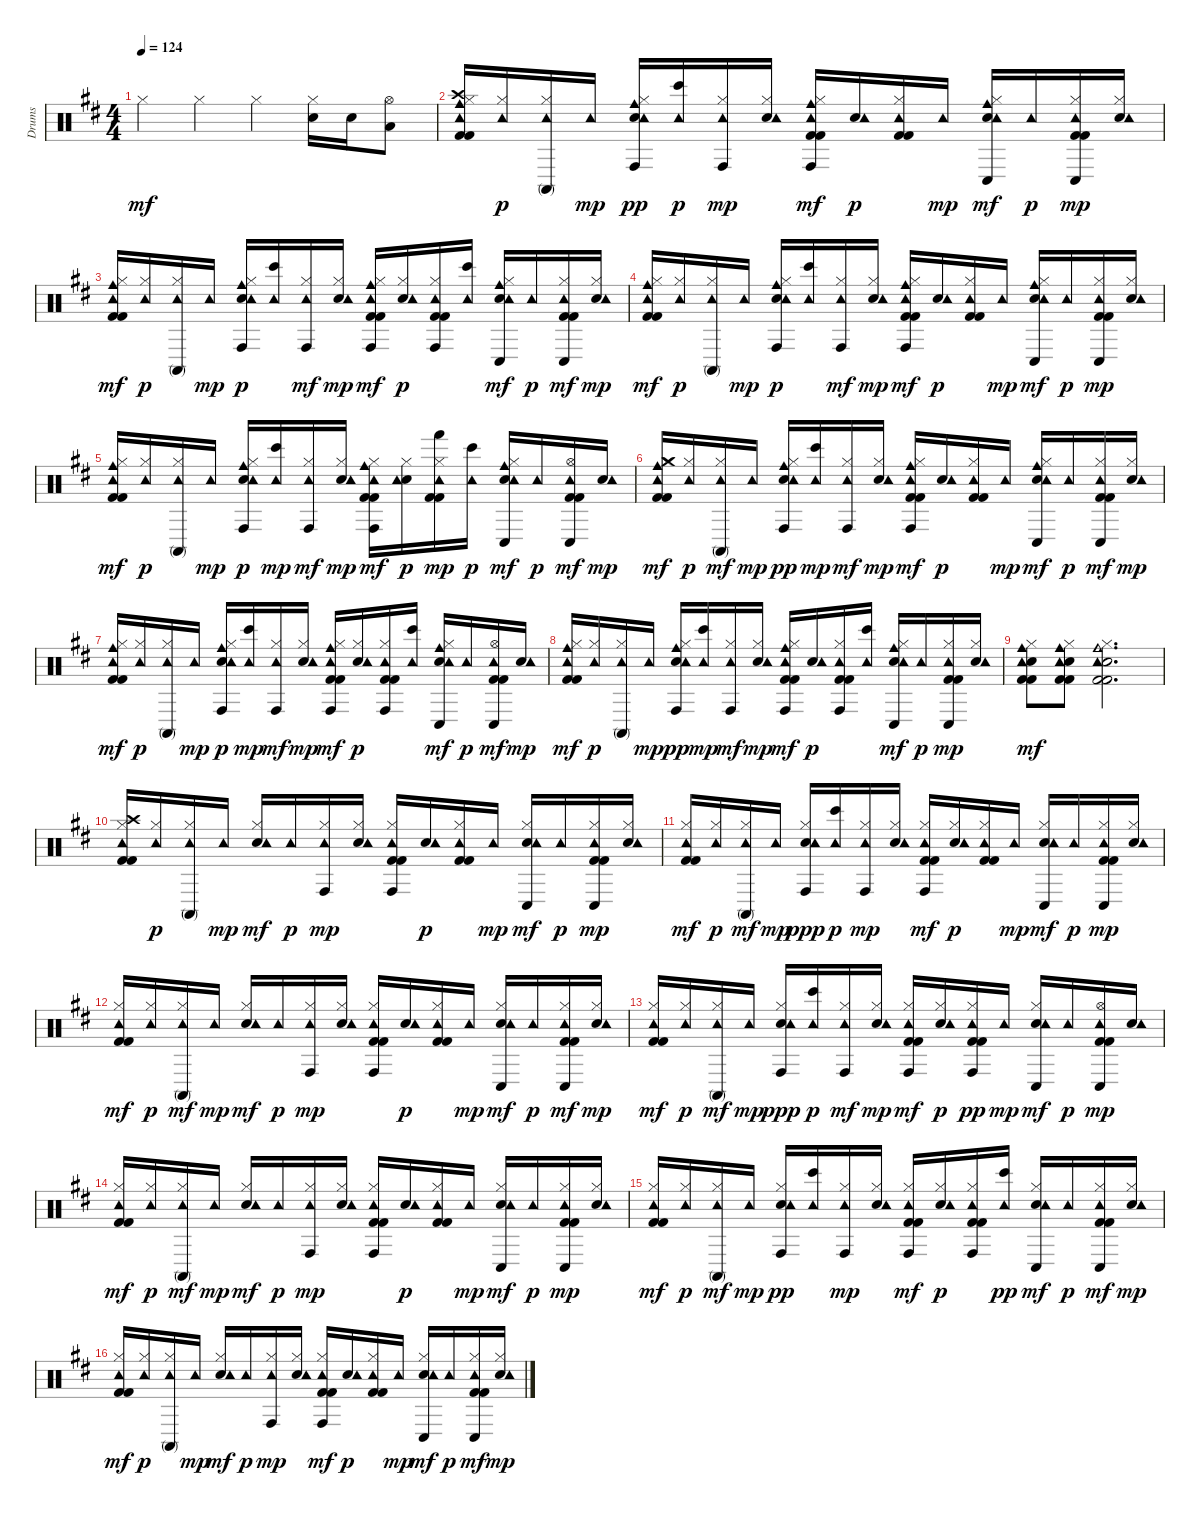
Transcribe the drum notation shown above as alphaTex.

\track ("Drums" "Drums") {instrument percussion}
\staff {score}
\articulation defaults
\ts (4 4)
\tempo 124
\clef neutral
\ks d "Hi-Hat (closed)".4{dy mf} "Hi-Hat (closed)".4 "Hi-Hat (closed)".4
("Electric Snare (hit)" "Hi-Hat (closed)").16 "Electric Snare (hit)".16 ("Low Tom (hit)" "Hi-Hat (open)").8 |
("Kick (hit) 2" "Kick (hit) 2" "Hi-Hat (closed)" "Crash high (hit)" "Tambourine (hit)" "Cowbell medium (hit)").16 ("Hi-Hat (closed)" "Tambourine (hit)").16{dy p} ("Hi-Hat (closed)" "Tambourine (hit)" "Conga high (mute)").16 "Tambourine (hit)".16{dy mp} ("Electric Snare (hit)" "Hi-Hat (closed)" "Tambourine (hit)" "Cowbell medium (hit)" "Conga high (hit)").16{dy pp} ("Tambourine (hit)" "Bongo High (hit)").16{dy p} ("Hi-Hat (closed)" "Tambourine (hit)" "Conga high (hit)").16{dy mp} ("Electric Snare (hit)" "Hi-Hat (closed)" "Tambourine (hit)").16 ("Kick (hit) 2" "Kick (hit) 2" "Hi-Hat (closed)" "Tambourine (hit)" "Cowbell medium (hit)" "Conga high (hit)").16{dy mf} ("Electric Snare (hit)" "Tambourine (hit)").16{dy p} ("Kick (hit) 2" "Kick (hit) 2" "Hi-Hat (closed)" "Tambourine (hit)").16 "Tambourine (hit)".16{dy mp} ("Electric Snare (hit)" "Hi-Hat (closed)" "Tambourine (hit)" "Cowbell medium (hit)" "Conga low (hit)").16{dy mf} "Tambourine (hit)".16{dy p} ("Kick (hit) 2" "Kick (hit) 2" "Hi-Hat (closed)" "Tambourine (hit)" "Conga low (hit)").16{dy mp} ("Electric Snare (hit)" "Hi-Hat (closed)" "Tambourine (hit)").16 |
("Kick (hit) 2" "Kick (hit) 2" "Hi-Hat (closed)" "Tambourine (hit)" "Cowbell medium (hit)").16{dy mf} ("Hi-Hat (closed)" "Tambourine (hit)").16{dy p} ("Hi-Hat (closed)" "Tambourine (hit)" "Conga high (mute)").16 "Tambourine (hit)".16{dy mp} ("Electric Snare (hit)" "Hi-Hat (closed)" "Tambourine (hit)" "Cowbell medium (hit)" "Conga high (hit)").16{dy p} ("Tambourine (hit)" "Bongo High (hit)").16 ("Hi-Hat (closed)" "Tambourine (hit)" "Conga high (hit)").16{dy mf} ("Electric Snare (hit)" "Hi-Hat (closed)" "Tambourine (hit)").16{dy mp} ("Kick (hit) 2" "Kick (hit) 2" "Hi-Hat (closed)" "Tambourine (hit)" "Cowbell medium (hit)" "Conga high (hit)").16{dy mf} ("Electric Snare (hit)" "Hi-Hat (closed)" "Tambourine (hit)").16{dy p} ("Kick (hit) 2" "Kick (hit) 2" "Hi-Hat (closed)" "Tambourine (hit)" "Conga high (hit)").16 ("Tambourine (hit)" "Bongo High (hit)").16 ("Electric Snare (hit)" "Hi-Hat (closed)" "Tambourine (hit)" "Cowbell medium (hit)" "Conga low (hit)").16{dy mf} "Tambourine (hit)".16{dy p} ("Kick (hit) 2" "Kick (hit) 2" "Hi-Hat (closed)" "Tambourine (hit)" "Conga low (hit)").16{dy mf} ("Electric Snare (hit)" "Hi-Hat (closed)" "Tambourine (hit)").16{dy mp} |
("Kick (hit) 2" "Kick (hit) 2" "Hi-Hat (closed)" "Tambourine (hit)" "Cowbell medium (hit)").16{dy mf} ("Hi-Hat (closed)" "Tambourine (hit)").16{dy p} ("Hi-Hat (closed)" "Tambourine (hit)" "Conga high (mute)").16 "Tambourine (hit)".16{dy mp} ("Electric Snare (hit)" "Hi-Hat (closed)" "Tambourine (hit)" "Cowbell medium (hit)" "Conga high (hit)").16{dy p} ("Tambourine (hit)" "Bongo High (hit)").16 ("Hi-Hat (closed)" "Tambourine (hit)" "Conga high (hit)").16{dy mf} ("Electric Snare (hit)" "Hi-Hat (closed)" "Tambourine (hit)").16{dy mp} ("Kick (hit) 2" "Kick (hit) 2" "Hi-Hat (closed)" "Tambourine (hit)" "Cowbell medium (hit)" "Conga high (hit)").16{dy mf} ("Electric Snare (hit)" "Tambourine (hit)").16{dy p} ("Kick (hit) 2" "Kick (hit) 2" "Hi-Hat (closed)" "Tambourine (hit)").16 "Tambourine (hit)".16{dy mp} ("Electric Snare (hit)" "Hi-Hat (closed)" "Tambourine (hit)" "Cowbell medium (hit)" "Conga low (hit)").16{dy mf} "Tambourine (hit)".16{dy p} ("Kick (hit) 2" "Kick (hit) 2" "Hi-Hat (closed)" "Tambourine (hit)" "Conga low (hit)").16{dy mp} ("Electric Snare (hit)" "Hi-Hat (closed)" "Tambourine (hit)").16 |
("Kick (hit) 2" "Kick (hit) 2" "Hi-Hat (closed)" "Tambourine (hit)" "Cowbell medium (hit)").16{dy mf} ("Hi-Hat (closed)" "Tambourine (hit)").16{dy p} ("Hi-Hat (closed)" "Tambourine (hit)" "Conga high (mute)").16 "Tambourine (hit)".16{dy mp} ("Electric Snare (hit)" "Hi-Hat (closed)" "Tambourine (hit)" "Cowbell medium (hit)" "Conga high (hit)").16{dy p} ("Tambourine (hit)" "Bongo High (hit)").16{dy mp} ("Hi-Hat (closed)" "Tambourine (hit)" "Conga high (hit)").16{dy mf} ("Electric Snare (hit)" "Hi-Hat (closed)" "Tambourine (hit)").16{dy mp} ("Kick (hit) 2" "Kick (hit) 2" "Hi-Hat (closed)" "Tambourine (hit)" "Cowbell medium (hit)" "Conga high (hit)").16{dy mf} ("Electric Snare (hit)" "Hi-Hat (closed)" "Tambourine (hit)").16{dy p} ("Kick (hit) 2" "Kick (hit) 2" "Hi-Hat (closed)" "Tambourine (hit)" "Hand (hit)").16{dy mp} ("Tambourine (hit)" "Bongo High (hit)").16{dy p} ("Electric Snare (hit)" "Hi-Hat (closed)" "Tambourine (hit)" "Cowbell medium (hit)" "Conga low (hit)").16{dy mf} "Tambourine (hit)".16{dy p} ("Kick (hit) 2" "Kick (hit) 2" "Hi-Hat (open)" "Tambourine (hit)" "Conga low (hit)").16{dy mf} ("Electric Snare (hit)" "Tambourine (hit)").16{dy mp} |
("Kick (hit) 2" "Kick (hit) 2" "Hi-Hat (closed)" "Tambourine (hit)" "Cowbell medium (hit)" "Crash medium (hit)").16{dy mf} ("Hi-Hat (closed)" "Tambourine (hit)").16{dy p} ("Hi-Hat (closed)" "Tambourine (hit)" "Conga high (mute)").16{dy mf} "Tambourine (hit)".16{dy mp} ("Electric Snare (hit)" "Hi-Hat (closed)" "Tambourine (hit)" "Cowbell medium (hit)" "Conga high (hit)").16{dy pp} ("Tambourine (hit)" "Bongo High (hit)").16{dy mp} ("Hi-Hat (closed)" "Tambourine (hit)" "Conga high (hit)").16{dy mf} ("Electric Snare (hit)" "Hi-Hat (closed)" "Tambourine (hit)").16{dy mp} ("Kick (hit) 2" "Kick (hit) 2" "Hi-Hat (closed)" "Tambourine (hit)" "Cowbell medium (hit)" "Conga high (hit)").16{dy mf} ("Electric Snare (hit)" "Tambourine (hit)").16{dy p} ("Kick (hit) 2" "Kick (hit) 2" "Hi-Hat (closed)" "Tambourine (hit)").16 "Tambourine (hit)".16{dy mp} ("Electric Snare (hit)" "Hi-Hat (closed)" "Tambourine (hit)" "Cowbell medium (hit)" "Conga low (hit)").16{dy mf} "Tambourine (hit)".16{dy p} ("Kick (hit) 2" "Kick (hit) 2" "Hi-Hat (closed)" "Tambourine (hit)" "Conga low (hit)").16{dy mf} ("Electric Snare (hit)" "Hi-Hat (closed)" "Tambourine (hit)").16{dy mp} |
("Kick (hit) 2" "Kick (hit) 2" "Hi-Hat (closed)" "Tambourine (hit)" "Cowbell medium (hit)").16{dy mf} ("Hi-Hat (closed)" "Tambourine (hit)").16{dy p} ("Hi-Hat (closed)" "Tambourine (hit)" "Conga high (mute)").16 "Tambourine (hit)".16{dy mp} ("Electric Snare (hit)" "Hi-Hat (closed)" "Tambourine (hit)" "Cowbell medium (hit)" "Conga high (hit)").16{dy p} ("Tambourine (hit)" "Bongo High (hit)").16{dy mp} ("Hi-Hat (closed)" "Tambourine (hit)" "Conga high (hit)").16{dy mf} ("Electric Snare (hit)" "Hi-Hat (closed)" "Tambourine (hit)").16{dy mp} ("Kick (hit) 2" "Kick (hit) 2" "Hi-Hat (closed)" "Tambourine (hit)" "Cowbell medium (hit)" "Conga high (hit)").16{dy mf} ("Electric Snare (hit)" "Hi-Hat (closed)" "Tambourine (hit)").16{dy p} ("Kick (hit) 2" "Kick (hit) 2" "Hi-Hat (closed)" "Tambourine (hit)" "Conga high (hit)").16 ("Tambourine (hit)" "Bongo High (hit)").16 ("Electric Snare (hit)" "Hi-Hat (closed)" "Tambourine (hit)" "Cowbell medium (hit)" "Conga low (hit)").16{dy mf} "Tambourine (hit)".16{dy p} ("Kick (hit) 2" "Kick (hit) 2" "Hi-Hat (open)" "Tambourine (hit)" "Conga low (hit)").16{dy mf} ("Electric Snare (hit)" "Tambourine (hit)").16{dy mp} |
("Kick (hit) 2" "Kick (hit) 2" "Hi-Hat (closed)" "Tambourine (hit)" "Cowbell medium (hit)").16{dy mf} ("Hi-Hat (closed)" "Tambourine (hit)").16{dy p} ("Hi-Hat (closed)" "Tambourine (hit)" "Conga high (mute)").16 "Tambourine (hit)".16{dy mp} ("Electric Snare (hit)" "Hi-Hat (closed)" "Tambourine (hit)" "Cowbell medium (hit)" "Conga high (hit)").16{dy pp} ("Tambourine (hit)" "Bongo High (hit)").16{dy mp} ("Hi-Hat (closed)" "Tambourine (hit)" "Conga high (hit)").16{dy mf} ("Electric Snare (hit)" "Hi-Hat (closed)" "Tambourine (hit)").16{dy mp} ("Kick (hit) 2" "Kick (hit) 2" "Hi-Hat (closed)" "Tambourine (hit)" "Cowbell medium (hit)" "Conga high (hit)").16{dy mf} ("Electric Snare (hit)" "Tambourine (hit)").16{dy p} ("Kick (hit) 2" "Kick (hit) 2" "Hi-Hat (closed)" "Tambourine (hit)" "Conga high (hit)").16 ("Tambourine (hit)" "Bongo High (hit)").16 ("Electric Snare (hit)" "Hi-Hat (closed)" "Tambourine (hit)" "Cowbell medium (hit)" "Conga low (hit)").16{dy mf} "Tambourine (hit)".16{dy p} ("Kick (hit) 2" "Kick (hit) 2" "Hi-Hat (closed)" "Tambourine (hit)" "Conga low (hit)").16{dy mp} ("Electric Snare (hit)" "Hi-Hat (closed)" "Tambourine (hit)").16 |
("Kick (hit) 2" "Kick (hit) 2" "Electric Snare (hit)" "Hi-Hat (closed)" "Tambourine (hit)" "Cowbell medium (hit)").8{dy mf} ("Kick (hit) 2" "Kick (hit) 2" "Electric Snare (hit)" "Hi-Hat (closed)" "Tambourine (hit)" "Cowbell medium (hit)").8 ("Kick (hit) 2" "Kick (hit) 2" "Electric Snare (hit)" "Hi-Hat (closed)" "Tambourine (hit)" "Cowbell medium (hit)").2{d} |
("Kick (hit) 2" "Kick (hit) 2" "Hi-Hat (closed)" "Crash high (hit)" "Tambourine (hit)").16 ("Hi-Hat (closed)" "Tambourine (hit)").16{dy p} ("Hi-Hat (closed)" "Tambourine (hit)" "Conga high (mute)").16 "Tambourine (hit)".16{dy mp} ("Electric Snare (hit)" "Hi-Hat (closed)" "Tambourine (hit)").16{dy mf} "Tambourine (hit)".16{dy p} ("Hi-Hat (closed)" "Tambourine (hit)" "Conga high (hit)").16{dy mp} ("Electric Snare (hit)" "Hi-Hat (closed)" "Tambourine (hit)").16 ("Kick (hit) 2" "Kick (hit) 2" "Hi-Hat (closed)" "Tambourine (hit)" "Conga high (hit)").16 ("Electric Snare (hit)" "Tambourine (hit)").16{dy p} ("Kick (hit) 2" "Kick (hit) 2" "Hi-Hat (closed)" "Tambourine (hit)").16 "Tambourine (hit)".16{dy mp} ("Electric Snare (hit)" "Hi-Hat (closed)" "Tambourine (hit)" "Conga low (hit)").16{dy mf} "Tambourine (hit)".16{dy p} ("Kick (hit) 2" "Kick (hit) 2" "Hi-Hat (closed)" "Tambourine (hit)" "Conga low (hit)").16{dy mp} ("Electric Snare (hit)" "Hi-Hat (closed)" "Tambourine (hit)").16 |
("Kick (hit) 2" "Kick (hit) 2" "Hi-Hat (closed)" "Tambourine (hit)").16{dy mf} ("Hi-Hat (closed)" "Tambourine (hit)").16{dy p} ("Hi-Hat (closed)" "Tambourine (hit)" "Conga high (mute)").16{dy mf} "Tambourine (hit)".16{dy mp} ("Electric Snare (hit)" "Hi-Hat (closed)" "Tambourine (hit)" "Conga high (hit)").16{dy ppp} ("Tambourine (hit)" "Bongo High (hit)").16{dy p} ("Hi-Hat (closed)" "Tambourine (hit)" "Conga high (hit)").16{dy mp} ("Electric Snare (hit)" "Hi-Hat (closed)" "Tambourine (hit)").16 ("Kick (hit) 2" "Kick (hit) 2" "Hi-Hat (closed)" "Tambourine (hit)" "Conga high (hit)").16{dy mf} ("Electric Snare (hit)" "Hi-Hat (closed)" "Tambourine (hit)").16{dy p} ("Kick (hit) 2" "Kick (hit) 2" "Hi-Hat (closed)" "Tambourine (hit)").16 "Tambourine (hit)".16{dy mp} ("Electric Snare (hit)" "Hi-Hat (closed)" "Tambourine (hit)" "Conga low (hit)").16{dy mf} "Tambourine (hit)".16{dy p} ("Kick (hit) 2" "Kick (hit) 2" "Hi-Hat (closed)" "Tambourine (hit)" "Conga low (hit)").16{dy mp} ("Electric Snare (hit)" "Hi-Hat (closed)" "Tambourine (hit)").16 |
("Kick (hit) 2" "Kick (hit) 2" "Hi-Hat (closed)" "Tambourine (hit)").16{dy mf} ("Hi-Hat (closed)" "Tambourine (hit)").16{dy p} ("Hi-Hat (closed)" "Tambourine (hit)" "Conga high (mute)").16{dy mf} "Tambourine (hit)".16{dy mp} ("Electric Snare (hit)" "Hi-Hat (closed)" "Tambourine (hit)").16{dy mf} "Tambourine (hit)".16{dy p} ("Hi-Hat (closed)" "Tambourine (hit)" "Conga high (hit)").16{dy mp} ("Electric Snare (hit)" "Hi-Hat (closed)" "Tambourine (hit)").16 ("Kick (hit) 2" "Kick (hit) 2" "Hi-Hat (closed)" "Tambourine (hit)" "Conga high (hit)").16 ("Electric Snare (hit)" "Tambourine (hit)").16{dy p} ("Kick (hit) 2" "Kick (hit) 2" "Hi-Hat (closed)" "Tambourine (hit)").16 "Tambourine (hit)".16{dy mp} ("Electric Snare (hit)" "Hi-Hat (closed)" "Tambourine (hit)" "Conga low (hit)").16{dy mf} "Tambourine (hit)".16{dy p} ("Kick (hit) 2" "Kick (hit) 2" "Hi-Hat (closed)" "Tambourine (hit)" "Conga low (hit)").16{dy mf} ("Electric Snare (hit)" "Hi-Hat (closed)" "Tambourine (hit)").16{dy mp} |
("Kick (hit) 2" "Kick (hit) 2" "Hi-Hat (closed)" "Tambourine (hit)").16{dy mf} ("Hi-Hat (closed)" "Tambourine (hit)").16{dy p} ("Hi-Hat (closed)" "Tambourine (hit)" "Conga high (mute)").16{dy mf} "Tambourine (hit)".16{dy mp} ("Electric Snare (hit)" "Hi-Hat (closed)" "Tambourine (hit)" "Conga high (hit)").16{dy ppp} ("Tambourine (hit)" "Bongo High (hit)").16{dy p} ("Hi-Hat (closed)" "Tambourine (hit)" "Conga high (hit)").16{dy mf} ("Electric Snare (hit)" "Hi-Hat (closed)" "Tambourine (hit)").16{dy mp} ("Kick (hit) 2" "Kick (hit) 2" "Hi-Hat (closed)" "Tambourine (hit)" "Conga high (hit)").16{dy mf} ("Electric Snare (hit)" "Hi-Hat (closed)" "Tambourine (hit)").16{dy p} ("Kick (hit) 2" "Kick (hit) 2" "Hi-Hat (closed)" "Tambourine (hit)" "Conga high (hit)").16{dy pp} "Tambourine (hit)".16{dy mp} ("Electric Snare (hit)" "Hi-Hat (closed)" "Tambourine (hit)" "Conga low (hit)").16{dy mf} "Tambourine (hit)".16{dy p} ("Kick (hit) 2" "Kick (hit) 2" "Hi-Hat (open)" "Tambourine (hit)" "Conga low (hit)").16{dy mp} ("Electric Snare (hit)" "Tambourine (hit)").16 |
("Kick (hit) 2" "Kick (hit) 2" "Hi-Hat (closed)" "Tambourine (hit)").16{dy mf} ("Hi-Hat (closed)" "Tambourine (hit)").16{dy p} ("Hi-Hat (closed)" "Tambourine (hit)" "Conga high (mute)").16{dy mf} "Tambourine (hit)".16{dy mp} ("Electric Snare (hit)" "Hi-Hat (closed)" "Tambourine (hit)").16{dy mf} "Tambourine (hit)".16{dy p} ("Hi-Hat (closed)" "Tambourine (hit)" "Conga high (hit)").16{dy mp} ("Electric Snare (hit)" "Hi-Hat (closed)" "Tambourine (hit)").16 ("Kick (hit) 2" "Kick (hit) 2" "Hi-Hat (closed)" "Tambourine (hit)" "Conga high (hit)").16 ("Electric Snare (hit)" "Tambourine (hit)").16{dy p} ("Kick (hit) 2" "Kick (hit) 2" "Hi-Hat (closed)" "Tambourine (hit)").16 "Tambourine (hit)".16{dy mp} ("Electric Snare (hit)" "Hi-Hat (closed)" "Tambourine (hit)" "Conga low (hit)").16{dy mf} "Tambourine (hit)".16{dy p} ("Kick (hit) 2" "Kick (hit) 2" "Hi-Hat (closed)" "Tambourine (hit)" "Conga low (hit)").16{dy mp} ("Electric Snare (hit)" "Hi-Hat (closed)" "Tambourine (hit)").16 |
("Kick (hit) 2" "Kick (hit) 2" "Hi-Hat (closed)" "Tambourine (hit)").16{dy mf} ("Hi-Hat (closed)" "Tambourine (hit)").16{dy p} ("Hi-Hat (closed)" "Tambourine (hit)" "Conga high (mute)").16{dy mf} "Tambourine (hit)".16{dy mp} ("Electric Snare (hit)" "Hi-Hat (closed)" "Tambourine (hit)" "Conga high (hit)").16{dy pp} ("Tambourine (hit)" "Bongo High (hit)").16 ("Hi-Hat (closed)" "Tambourine (hit)" "Conga high (hit)").16{dy mp} ("Electric Snare (hit)" "Hi-Hat (closed)" "Tambourine (hit)").16 ("Kick (hit) 2" "Kick (hit) 2" "Hi-Hat (closed)" "Tambourine (hit)" "Conga high (hit)").16{dy mf} ("Electric Snare (hit)" "Hi-Hat (closed)" "Tambourine (hit)").16{dy p} ("Kick (hit) 2" "Kick (hit) 2" "Hi-Hat (closed)" "Tambourine (hit)" "Conga high (hit)").16 ("Tambourine (hit)" "Bongo High (hit)").16{dy pp} ("Electric Snare (hit)" "Hi-Hat (closed)" "Tambourine (hit)" "Conga low (hit)").16{dy mf} "Tambourine (hit)".16{dy p} ("Kick (hit) 2" "Kick (hit) 2" "Hi-Hat (closed)" "Tambourine (hit)" "Conga low (hit)").16{dy mf} ("Electric Snare (hit)" "Hi-Hat (closed)" "Tambourine (hit)").16{dy mp} |
("Kick (hit) 2" "Kick (hit) 2" "Hi-Hat (closed)" "Tambourine (hit)").16{dy mf} ("Hi-Hat (closed)" "Tambourine (hit)").16{dy p} ("Hi-Hat (closed)" "Tambourine (hit)" "Conga high (mute)").16 "Tambourine (hit)".16{dy mp} ("Electric Snare (hit)" "Hi-Hat (closed)" "Tambourine (hit)").16{dy mf} "Tambourine (hit)".16{dy p} ("Hi-Hat (closed)" "Tambourine (hit)" "Conga high (hit)").16{dy mp} ("Electric Snare (hit)" "Hi-Hat (closed)" "Tambourine (hit)").16 ("Kick (hit) 2" "Kick (hit) 2" "Hi-Hat (closed)" "Tambourine (hit)" "Conga high (hit)").16{dy mf} ("Electric Snare (hit)" "Tambourine (hit)").16{dy p} ("Kick (hit) 2" "Kick (hit) 2" "Hi-Hat (closed)" "Tambourine (hit)").16 "Tambourine (hit)".16{dy mp} ("Electric Snare (hit)" "Hi-Hat (closed)" "Tambourine (hit)" "Conga low (hit)").16{dy mf} "Tambourine (hit)".16{dy p} ("Kick (hit) 2" "Kick (hit) 2" "Hi-Hat (closed)" "Tambourine (hit)" "Conga low (hit)").16{dy mf} ("Electric Snare (hit)" "Hi-Hat (closed)" "Tambourine (hit)").16{dy mp}
